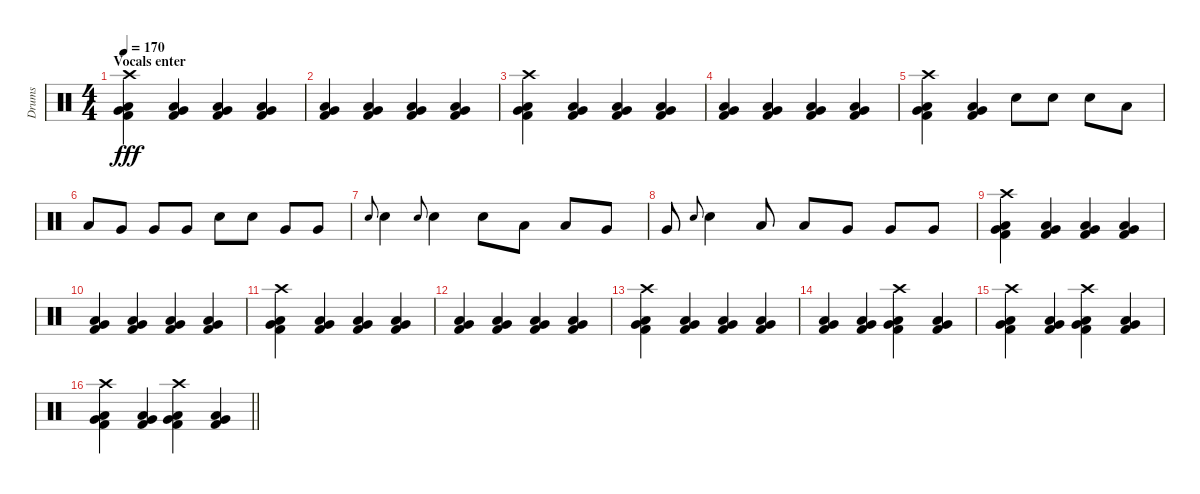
\track ("Drums" "Drums") {instrument percussion}
\staff {score}
\articulation defaults
\ts (4 4)
\section ("" "Vocals enter")
\tempo 170
\clef neutral
\ks c
("Crash high (hit)" "Low Tom (hit)" "Very Low Tom (hit)" "Kick (hit) 2").4{dy fff} ("Low Tom (hit)" "Very Low Tom (hit)" "Kick (hit) 2").4 ("Low Tom (hit)" "Very Low Tom (hit)" "Kick (hit) 2").4 ("Low Tom (hit)" "Very Low Tom (hit)" "Kick (hit) 2").4 |
("Low Tom (hit)" "Very Low Tom (hit)" "Kick (hit) 2").4 ("Low Tom (hit)" "Very Low Tom (hit)" "Kick (hit) 2").4 ("Low Tom (hit)" "Very Low Tom (hit)" "Kick (hit) 2").4 ("Low Tom (hit)" "Very Low Tom (hit)" "Kick (hit) 2").4 |
("Crash high (hit)" "Low Tom (hit)" "Very Low Tom (hit)" "Kick (hit) 2").4 ("Low Tom (hit)" "Very Low Tom (hit)" "Kick (hit) 2").4 ("Low Tom (hit)" "Very Low Tom (hit)" "Kick (hit) 2").4 ("Low Tom (hit)" "Very Low Tom (hit)" "Kick (hit) 2").4 |
("Low Tom (hit)" "Very Low Tom (hit)" "Kick (hit) 2").4 ("Low Tom (hit)" "Very Low Tom (hit)" "Kick (hit) 2").4 ("Low Tom (hit)" "Very Low Tom (hit)" "Kick (hit) 2").4 ("Low Tom (hit)" "Very Low Tom (hit)" "Kick (hit) 2").4 |
("Crash high (hit)" "Low Tom (hit)" "Very Low Tom (hit)" "Kick (hit) 2").4 ("Low Tom (hit)" "Very Low Tom (hit)" "Kick (hit) 2").4 "Electric Snare (hit)".8 "Electric Snare (hit)".8 "Electric Snare (hit)".8 "Low Tom (hit)".8 |
"Low Tom (hit)".8 "Very Low Tom (hit)".8 "Very Low Tom (hit)".8 "Very Low Tom (hit)".8 "Electric Snare (hit)".8 "Electric Snare (hit)".8 "Very Low Tom (hit)".8 "Very Low Tom (hit)".8 |
"Electric Snare (hit)".8{gr onbeat} "Electric Snare (hit)".4 "Electric Snare (hit)".8{gr onbeat} "Electric Snare (hit)".4 "Electric Snare (hit)".8 "Low Tom (hit)".8 "Low Tom (hit)".8 "Very Low Tom (hit)".8 |
"Very Low Tom (hit)".8 "Electric Snare (hit)".8{gr onbeat} "Electric Snare (hit)".4 "Low Tom (hit)".8 "Low Tom (hit)".8 "Very Low Tom (hit)".8 "Very Low Tom (hit)".8 "Very Low Tom (hit)".8 |
("Crash high (hit)" "Low Tom (hit)" "Very Low Tom (hit)" "Kick (hit) 2").4 ("Low Tom (hit)" "Very Low Tom (hit)" "Kick (hit) 2").4 ("Low Tom (hit)" "Very Low Tom (hit)" "Kick (hit) 2").4 ("Low Tom (hit)" "Very Low Tom (hit)" "Kick (hit) 2").4 |
("Low Tom (hit)" "Very Low Tom (hit)" "Kick (hit) 2").4 ("Low Tom (hit)" "Very Low Tom (hit)" "Kick (hit) 2").4 ("Low Tom (hit)" "Very Low Tom (hit)" "Kick (hit) 2").4 ("Low Tom (hit)" "Very Low Tom (hit)" "Kick (hit) 2").4 |
("Crash high (hit)" "Low Tom (hit)" "Very Low Tom (hit)" "Kick (hit) 2").4 ("Low Tom (hit)" "Very Low Tom (hit)" "Kick (hit) 2").4 ("Low Tom (hit)" "Very Low Tom (hit)" "Kick (hit) 2").4 ("Low Tom (hit)" "Very Low Tom (hit)" "Kick (hit) 2").4 |
("Low Tom (hit)" "Very Low Tom (hit)" "Kick (hit) 2").4 ("Low Tom (hit)" "Very Low Tom (hit)" "Kick (hit) 2").4 ("Low Tom (hit)" "Very Low Tom (hit)" "Kick (hit) 2").4 ("Low Tom (hit)" "Very Low Tom (hit)" "Kick (hit) 2").4 |
("Crash high (hit)" "Low Tom (hit)" "Very Low Tom (hit)" "Kick (hit) 2").4 ("Low Tom (hit)" "Very Low Tom (hit)" "Kick (hit) 2").4 ("Low Tom (hit)" "Very Low Tom (hit)" "Kick (hit) 2").4 ("Low Tom (hit)" "Very Low Tom (hit)" "Kick (hit) 2").4 |
("Low Tom (hit)" "Very Low Tom (hit)" "Kick (hit) 2").4 ("Low Tom (hit)" "Very Low Tom (hit)" "Kick (hit) 2").4 ("Crash high (hit)" "Low Tom (hit)" "Very Low Tom (hit)" "Kick (hit) 2").4 ("Low Tom (hit)" "Very Low Tom (hit)" "Kick (hit) 2").4 |
("Crash high (hit)" "Low Tom (hit)" "Very Low Tom (hit)" "Kick (hit) 2").4 ("Low Tom (hit)" "Very Low Tom (hit)" "Kick (hit) 2").4 ("Crash high (hit)" "Low Tom (hit)" "Very Low Tom (hit)" "Kick (hit) 2").4 ("Low Tom (hit)" "Very Low Tom (hit)" "Kick (hit) 2").4 |
\barLineRight lightlight
("Crash high (hit)" "Low Tom (hit)" "Very Low Tom (hit)" "Kick (hit) 2").4 ("Low Tom (hit)" "Very Low Tom (hit)" "Kick (hit) 2").4 ("Crash high (hit)" "Low Tom (hit)" "Very Low Tom (hit)" "Kick (hit) 2").4 ("Low Tom (hit)" "Very Low Tom (hit)" "Kick (hit) 2").4
